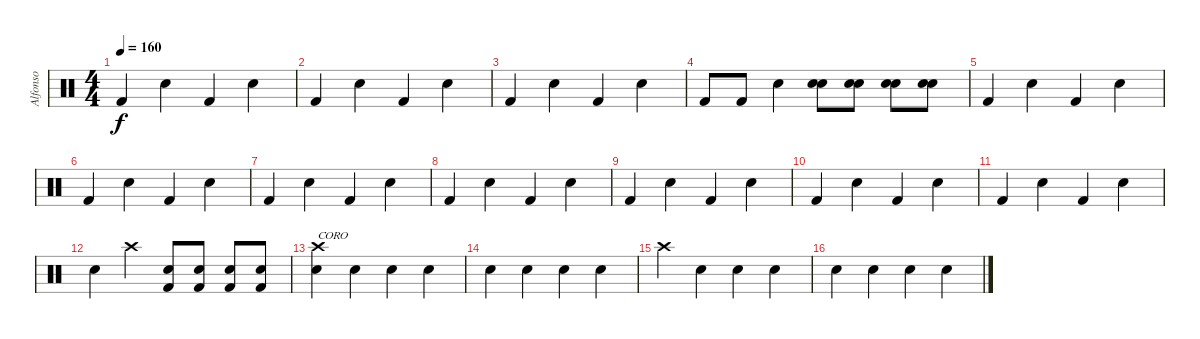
\track ("Alfonso" "Alfonso") {instrument percussion}
\staff {score}
\articulation defaults
\ts (4 4)
\tempo 160
\clef neutral
\ks c "Kick (hit) 2".4{dy f} "Electric Snare (hit)".4 "Kick (hit) 2".4 "Electric Snare (hit)".4
|
"Kick (hit) 2".4 "Electric Snare (hit)".4 "Kick (hit) 2".4 "Electric Snare (hit)".4 |
"Kick (hit) 2".4 "Electric Snare (hit)".4 "Kick (hit) 2".4 "Electric Snare (hit)".4 |
"Kick (hit) 2".8 "Kick (hit) 2".8 "Electric Snare (hit)".4 ("Electric Snare (hit)" "Snare (hit) 2").8 ("Electric Snare (hit)" "Snare (hit) 2").8 ("Electric Snare (hit)" "Snare (hit) 2").8 ("Electric Snare (hit)" "Snare (hit) 2").8 |
"Kick (hit) 2".4 "Electric Snare (hit)".4 "Kick (hit) 2".4 "Electric Snare (hit)".4 |
"Kick (hit) 2".4 "Electric Snare (hit)".4 "Kick (hit) 2".4 "Electric Snare (hit)".4 |
"Kick (hit) 2".4 "Electric Snare (hit)".4 "Kick (hit) 2".4 "Electric Snare (hit)".4 |
"Kick (hit) 2".4 "Electric Snare (hit)".4 "Kick (hit) 2".4 "Electric Snare (hit)".4 |
"Kick (hit) 2".4 "Electric Snare (hit)".4 "Kick (hit) 2".4 "Electric Snare (hit)".4 |
"Kick (hit) 2".4 "Electric Snare (hit)".4 "Kick (hit) 2".4 "Electric Snare (hit)".4 |
"Kick (hit) 2".4 "Electric Snare (hit)".4 "Kick (hit) 2".4 "Electric Snare (hit)".4 |
"Electric Snare (hit)".4 "Crash high (hit)".4 ("Electric Snare (hit)" "Kick (hit) 2").8 ("Electric Snare (hit)" "Kick (hit) 2").8 ("Electric Snare (hit)" "Kick (hit) 2").8 ("Electric Snare (hit)" "Kick (hit) 2").8 |
("Electric Snare (hit)" "Crash high (hit)").4{txt "CORO"} "Electric Snare (hit)".4 "Electric Snare (hit)".4 "Electric Snare (hit)".4 |
"Electric Snare (hit)".4 "Electric Snare (hit)".4 "Electric Snare (hit)".4 "Electric Snare (hit)".4 |
"Crash high (hit)".4 "Electric Snare (hit)".4 "Electric Snare (hit)".4 "Electric Snare (hit)".4 |
"Electric Snare (hit)".4 "Electric Snare (hit)".4 "Electric Snare (hit)".4 "Electric Snare (hit)".4
